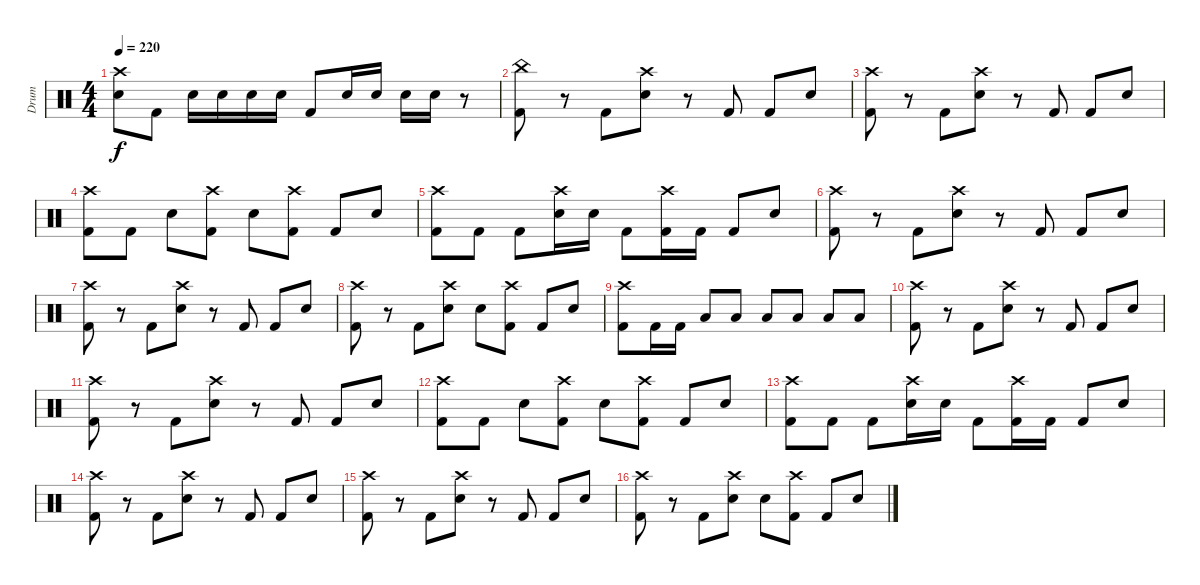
\track ("Drum" "Drum") {instrument percussion}
\staff {score}
\articulation defaults
\ts (4 4)
\tempo 220
\clef neutral
\ks c
("Crash high (hit)" "Snare (hit) 2").8{dy f} "Kick (hit) 2".8 "Snare (hit) 2".16 "Snare (hit) 2".16 "Snare (hit) 2".16 "Snare (hit) 2".16 "Kick (hit) 2".8 "Snare (hit) 2".16 "Snare (hit) 2".16 "Snare (hit) 2".16 "Snare (hit) 2".16 r.8 |
("China (hit)" "Kick (hit) 2").8 r.8 "Kick (hit) 2".8 ("Crash high (hit)" "Snare (hit) 2").8 r.8 "Kick (hit) 2".8 "Kick (hit) 2".8 "Snare (hit) 2".8 |
("Crash high (hit)" "Kick (hit) 2").8 r.8 "Kick (hit) 2".8 ("Crash high (hit)" "Snare (hit) 2").8 r.8 "Kick (hit) 2".8 "Kick (hit) 2".8 "Snare (hit) 2".8 |
("Crash high (hit)" "Kick (hit) 2").8 "Kick (hit) 2".8 "Snare (hit) 2".8 ("Crash high (hit)" "Kick (hit) 2").8 "Snare (hit) 2".8 ("Crash high (hit)" "Kick (hit) 2").8 "Kick (hit) 2".8 "Snare (hit) 2".8 |
("Crash high (hit)" "Kick (hit) 2").8 "Kick (hit) 2".8 "Kick (hit) 2".8 ("Crash high (hit)" "Snare (hit) 2").16 "Snare (hit) 2".16 "Kick (hit) 2".8 ("Crash high (hit)" "Kick (hit) 2").16 "Kick (hit) 2".16 "Kick (hit) 2".8 "Snare (hit) 2".8 |
("Crash high (hit)" "Kick (hit) 2").8 r.8 "Kick (hit) 2".8 ("Crash high (hit)" "Snare (hit) 2").8 r.8 "Kick (hit) 2".8 "Kick (hit) 2".8 "Snare (hit) 2".8 |
("Crash high (hit)" "Kick (hit) 2").8 r.8 "Kick (hit) 2".8 ("Crash high (hit)" "Snare (hit) 2").8 r.8 "Kick (hit) 2".8 "Kick (hit) 2".8 "Snare (hit) 2".8 |
("Crash high (hit)" "Kick (hit) 2").8 r.8 "Kick (hit) 2".8 ("Crash high (hit)" "Snare (hit) 2").8 "Snare (hit) 2".8 ("Crash high (hit)" "Kick (hit) 2").8 "Kick (hit) 2".8 "Snare (hit) 2".8 |
("Crash high (hit)" "Kick (hit) 2").8 "Kick (hit) 2".16 "Kick (hit) 2".16 "Low Tom (hit)".8 "Low Tom (hit)".8 "Low Tom (hit)".8 "Low Tom (hit)".8 "Low Tom (hit)".8 "Low Tom (hit)".8 |
("Crash high (hit)" "Kick (hit) 2").8 r.8 "Kick (hit) 2".8 ("Crash high (hit)" "Snare (hit) 2").8 r.8 "Kick (hit) 2".8 "Kick (hit) 2".8 "Snare (hit) 2".8 |
("Crash high (hit)" "Kick (hit) 2").8 r.8 "Kick (hit) 2".8 ("Crash high (hit)" "Snare (hit) 2").8 r.8 "Kick (hit) 2".8 "Kick (hit) 2".8 "Snare (hit) 2".8 |
("Crash high (hit)" "Kick (hit) 2").8 "Kick (hit) 2".8 "Snare (hit) 2".8 ("Crash high (hit)" "Kick (hit) 2").8 "Snare (hit) 2".8 ("Crash high (hit)" "Kick (hit) 2").8 "Kick (hit) 2".8 "Snare (hit) 2".8 |
("Crash high (hit)" "Kick (hit) 2").8 "Kick (hit) 2".8 "Kick (hit) 2".8 ("Crash high (hit)" "Snare (hit) 2").16 "Snare (hit) 2".16 "Kick (hit) 2".8 ("Crash high (hit)" "Kick (hit) 2").16 "Kick (hit) 2".16 "Kick (hit) 2".8 "Snare (hit) 2".8 |
("Crash high (hit)" "Kick (hit) 2").8 r.8 "Kick (hit) 2".8 ("Crash high (hit)" "Snare (hit) 2").8 r.8 "Kick (hit) 2".8 "Kick (hit) 2".8 "Snare (hit) 2".8 |
("Crash high (hit)" "Kick (hit) 2").8 r.8 "Kick (hit) 2".8 ("Crash high (hit)" "Snare (hit) 2").8 r.8 "Kick (hit) 2".8 "Kick (hit) 2".8 "Snare (hit) 2".8 |
("Crash high (hit)" "Kick (hit) 2").8 r.8 "Kick (hit) 2".8 ("Crash high (hit)" "Snare (hit) 2").8 "Snare (hit) 2".8 ("Crash high (hit)" "Kick (hit) 2").8 "Kick (hit) 2".8 "Snare (hit) 2".8
